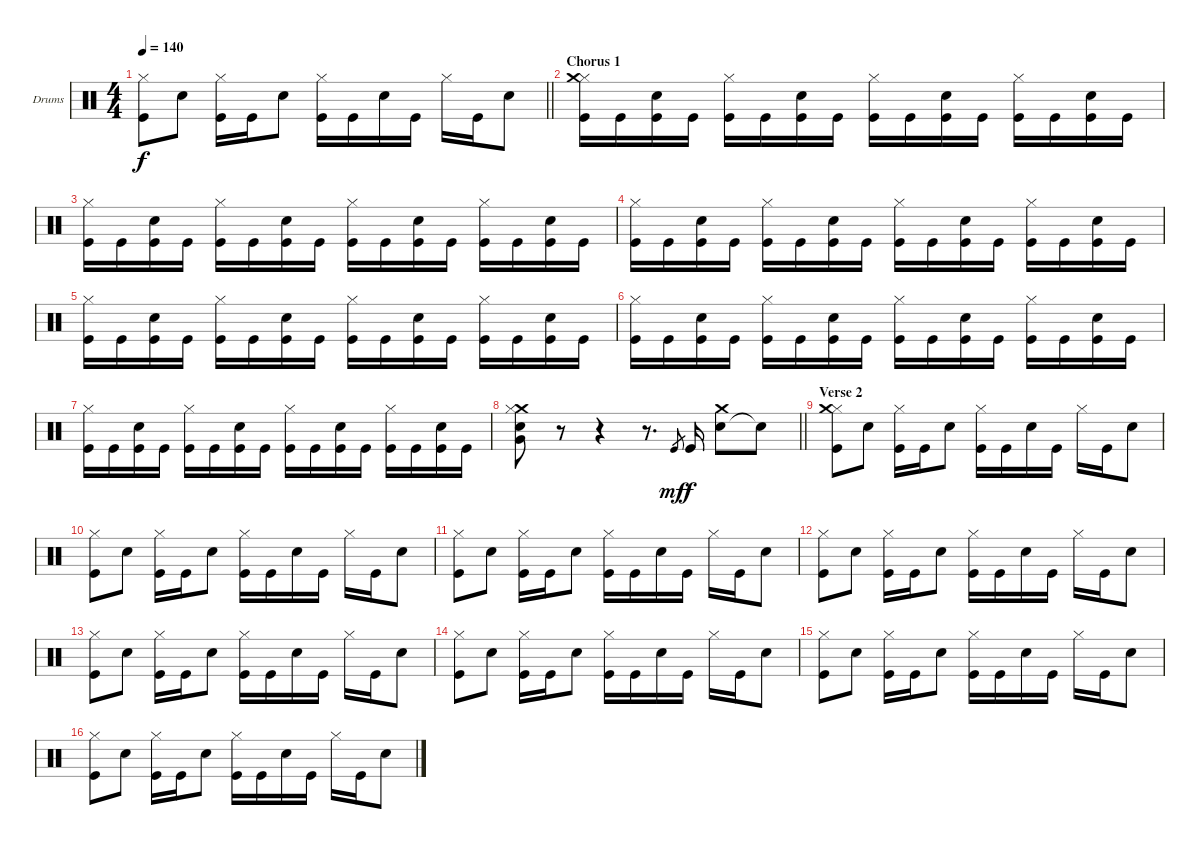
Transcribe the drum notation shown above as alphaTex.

\bracketExtendMode groupsimilarinstruments
\firstSystemTrackNameOrientation horizontal
\otherSystemsTrackNameOrientation horizontal
\track ("Drumkit" "Drums") {instrument percussion}
\staff {score}
\articulation defaults
\ts (4 4)
\tempo 140
\clef neutral
\barLineRight lightlight
\ks c
("Hi-Hat (closed)" "Kick (hit)").8{dy f} "Snare (hit) 2".8 ("Hi-Hat (closed)" "Kick (hit)").16 "Kick (hit)".16 "Snare (hit) 2".8 ("Hi-Hat (closed)" "Kick (hit)").16 "Kick (hit)".16 "Snare (hit) 2".16 "Kick (hit)".16 "Hi-Hat (closed)".16 "Kick (hit)".16 "Snare (hit) 2".8 |
\section ("" "Chorus 1")
("Hi-Hat (closed)" "Kick (hit)" "Crash medium (hit)").16 "Kick (hit)".16 ("Snare (hit) 2" "Kick (hit)").16 "Kick (hit)".16 ("Hi-Hat (closed)" "Kick (hit)").16 "Kick (hit)".16 ("Snare (hit) 2" "Kick (hit)").16 "Kick (hit)".16 ("Hi-Hat (closed)" "Kick (hit)").16 "Kick (hit)".16 ("Snare (hit) 2" "Kick (hit)").16 "Kick (hit)".16 ("Hi-Hat (closed)" "Kick (hit)").16 "Kick (hit)".16 ("Snare (hit) 2" "Kick (hit)").16 "Kick (hit)".16 |
("Hi-Hat (closed)" "Kick (hit)").16 "Kick (hit)".16 ("Snare (hit) 2" "Kick (hit)").16 "Kick (hit)".16 ("Hi-Hat (closed)" "Kick (hit)").16 "Kick (hit)".16 ("Snare (hit) 2" "Kick (hit)").16 "Kick (hit)".16 ("Hi-Hat (closed)" "Kick (hit)").16 "Kick (hit)".16 ("Snare (hit) 2" "Kick (hit)").16 "Kick (hit)".16 ("Hi-Hat (closed)" "Kick (hit)").16 "Kick (hit)".16 ("Snare (hit) 2" "Kick (hit)").16 "Kick (hit)".16 |
("Hi-Hat (closed)" "Kick (hit)").16 "Kick (hit)".16 ("Snare (hit) 2" "Kick (hit)").16 "Kick (hit)".16 ("Hi-Hat (closed)" "Kick (hit)").16 "Kick (hit)".16 ("Snare (hit) 2" "Kick (hit)").16 "Kick (hit)".16 ("Hi-Hat (closed)" "Kick (hit)").16 "Kick (hit)".16 ("Snare (hit) 2" "Kick (hit)").16 "Kick (hit)".16 ("Hi-Hat (closed)" "Kick (hit)").16 "Kick (hit)".16 ("Snare (hit) 2" "Kick (hit)").16 "Kick (hit)".16 |
("Hi-Hat (closed)" "Kick (hit)").16 "Kick (hit)".16 ("Snare (hit) 2" "Kick (hit)").16 "Kick (hit)".16 ("Hi-Hat (closed)" "Kick (hit)").16 "Kick (hit)".16 ("Snare (hit) 2" "Kick (hit)").16 "Kick (hit)".16 ("Hi-Hat (closed)" "Kick (hit)").16 "Kick (hit)".16 ("Snare (hit) 2" "Kick (hit)").16 "Kick (hit)".16 ("Hi-Hat (closed)" "Kick (hit)").16 "Kick (hit)".16 ("Snare (hit) 2" "Kick (hit)").16 "Kick (hit)".16 |
("Hi-Hat (closed)" "Kick (hit)").16 "Kick (hit)".16 ("Snare (hit) 2" "Kick (hit)").16 "Kick (hit)".16 ("Hi-Hat (closed)" "Kick (hit)").16 "Kick (hit)".16 ("Snare (hit) 2" "Kick (hit)").16 "Kick (hit)".16 ("Hi-Hat (closed)" "Kick (hit)").16 "Kick (hit)".16 ("Snare (hit) 2" "Kick (hit)").16 "Kick (hit)".16 ("Hi-Hat (closed)" "Kick (hit)").16 "Kick (hit)".16 ("Snare (hit) 2" "Kick (hit)").16 "Kick (hit)".16 |
("Hi-Hat (closed)" "Kick (hit)").16 "Kick (hit)".16 ("Snare (hit) 2" "Kick (hit)").16 "Kick (hit)".16 ("Hi-Hat (closed)" "Kick (hit)").16 "Kick (hit)".16 ("Snare (hit) 2" "Kick (hit)").16 "Kick (hit)".16 ("Hi-Hat (closed)" "Kick (hit)").16 "Kick (hit)".16 ("Snare (hit) 2" "Kick (hit)").16 "Kick (hit)".16 ("Hi-Hat (closed)" "Kick (hit)").16 "Kick (hit)".16 ("Snare (hit) 2" "Kick (hit)").16 "Kick (hit)".16 |
\barLineRight lightlight
("Crash medium (hit)" "Snare (hit) 2" "Hi-Hat (closed)" "Very Low Tom (hit)").8 r.8 r.4 r.8{d} "Kick (hit)".8{gr dy mf} "Kick (hit)".16{dy f} ("Snare (hit) 2" "Crash medium (hit)").8 "Snare (hit) 2"{t}.8 |
\section ("" "Verse 2")
("Hi-Hat (closed)" "Kick (hit)" "Crash medium (hit)").8 "Snare (hit) 2".8 ("Hi-Hat (closed)" "Kick (hit)").16 "Kick (hit)".16 "Snare (hit) 2".8 ("Hi-Hat (closed)" "Kick (hit)").16 "Kick (hit)".16 "Snare (hit) 2".16 "Kick (hit)".16 "Hi-Hat (closed)".16 "Kick (hit)".16 "Snare (hit) 2".8 |
("Hi-Hat (closed)" "Kick (hit)").8 "Snare (hit) 2".8 ("Hi-Hat (closed)" "Kick (hit)").16 "Kick (hit)".16 "Snare (hit) 2".8 ("Hi-Hat (closed)" "Kick (hit)").16 "Kick (hit)".16 "Snare (hit) 2".16 "Kick (hit)".16 "Hi-Hat (closed)".16 "Kick (hit)".16 "Snare (hit) 2".8 |
("Hi-Hat (closed)" "Kick (hit)").8 "Snare (hit) 2".8 ("Hi-Hat (closed)" "Kick (hit)").16 "Kick (hit)".16 "Snare (hit) 2".8 ("Hi-Hat (closed)" "Kick (hit)").16 "Kick (hit)".16 "Snare (hit) 2".16 "Kick (hit)".16 "Hi-Hat (closed)".16 "Kick (hit)".16 "Snare (hit) 2".8 |
("Hi-Hat (closed)" "Kick (hit)").8 "Snare (hit) 2".8 ("Hi-Hat (closed)" "Kick (hit)").16 "Kick (hit)".16 "Snare (hit) 2".8 ("Hi-Hat (closed)" "Kick (hit)").16 "Kick (hit)".16 "Snare (hit) 2".16 "Kick (hit)".16 "Hi-Hat (closed)".16 "Kick (hit)".16 "Snare (hit) 2".8 |
("Hi-Hat (closed)" "Kick (hit)").8 "Snare (hit) 2".8 ("Hi-Hat (closed)" "Kick (hit)").16 "Kick (hit)".16 "Snare (hit) 2".8 ("Hi-Hat (closed)" "Kick (hit)").16 "Kick (hit)".16 "Snare (hit) 2".16 "Kick (hit)".16 "Hi-Hat (closed)".16 "Kick (hit)".16 "Snare (hit) 2".8 |
("Hi-Hat (closed)" "Kick (hit)").8 "Snare (hit) 2".8 ("Hi-Hat (closed)" "Kick (hit)").16 "Kick (hit)".16 "Snare (hit) 2".8 ("Hi-Hat (closed)" "Kick (hit)").16 "Kick (hit)".16 "Snare (hit) 2".16 "Kick (hit)".16 "Hi-Hat (closed)".16 "Kick (hit)".16 "Snare (hit) 2".8 |
("Hi-Hat (closed)" "Kick (hit)").8 "Snare (hit) 2".8 ("Hi-Hat (closed)" "Kick (hit)").16 "Kick (hit)".16 "Snare (hit) 2".8 ("Hi-Hat (closed)" "Kick (hit)").16 "Kick (hit)".16 "Snare (hit) 2".16 "Kick (hit)".16 "Hi-Hat (closed)".16 "Kick (hit)".16 "Snare (hit) 2".8 |
("Hi-Hat (closed)" "Kick (hit)").8 "Snare (hit) 2".8 ("Hi-Hat (closed)" "Kick (hit)").16 "Kick (hit)".16 "Snare (hit) 2".8 ("Hi-Hat (closed)" "Kick (hit)").16 "Kick (hit)".16 "Snare (hit) 2".16 "Kick (hit)".16 "Hi-Hat (closed)".16 "Kick (hit)".16 "Snare (hit) 2".8
